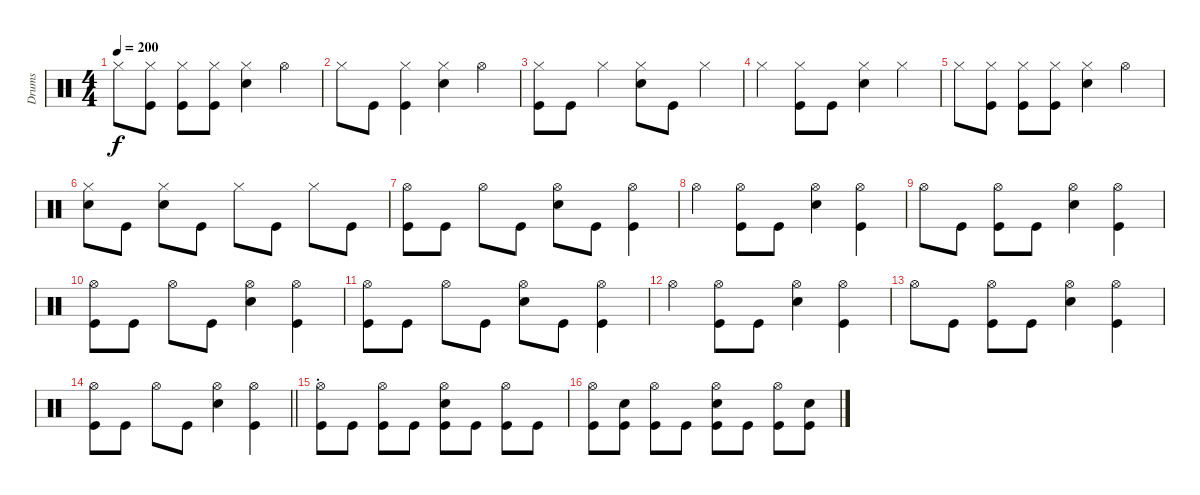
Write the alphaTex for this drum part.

\track ("Drums" "Drums") {instrument percussion}
\staff {score}
\articulation defaults
\ts (4 4)
\tempo 200
\clef neutral
\ks c "Hi-Hat (closed)".8{dy f}
("Hi-Hat (closed)" "Kick (hit)").8 ("Hi-Hat (closed)" "Kick (hit)").8 ("Hi-Hat (closed)" "Kick (hit)").8 ("Hi-Hat (closed)" "Snare (hit) 2").4 "Hi-Hat (open)".4 |
"Hi-Hat (closed)".8 "Kick (hit)".8 ("Hi-Hat (closed)" "Kick (hit)").4 ("Snare (hit) 2" "Hi-Hat (closed)").4 "Hi-Hat (open)".4 |
("Hi-Hat (closed)" "Kick (hit)").8 "Kick (hit)".8 "Hi-Hat (closed)".4 ("Hi-Hat (closed)" "Snare (hit) 2").8 "Kick (hit)".8 "Hi-Hat (closed)".4 |
"Hi-Hat (closed)".4 ("Kick (hit)" "Hi-Hat (closed)").8 "Kick (hit)".8 ("Snare (hit) 2" "Hi-Hat (closed)").4 "Hi-Hat (closed)".4 |
"Hi-Hat (closed)".8 ("Hi-Hat (closed)" "Kick (hit)").8 ("Hi-Hat (closed)" "Kick (hit)").8 ("Hi-Hat (closed)" "Kick (hit)").8 ("Hi-Hat (closed)" "Snare (hit) 2").4 "Hi-Hat (open)".4 |
("Hi-Hat (closed)" "Snare (hit) 2").8 "Kick (hit)".8 ("Snare (hit) 2" "Hi-Hat (closed)").8 "Kick (hit)".8 "Hi-Hat (closed)".8 "Kick (hit)".8 "Hi-Hat (closed)".8 "Kick (hit)".8 |
("Hi-Hat (open)" "Kick (hit)").8 "Kick (hit)".8 "Hi-Hat (open)".8 "Kick (hit)".8 ("Snare (hit) 2" "Hi-Hat (open)").8 "Kick (hit)".8 ("Hi-Hat (open)" "Kick (hit)").4 |
"Hi-Hat (open)".4 ("Hi-Hat (open)" "Kick (hit)").8 "Kick (hit)".8 ("Snare (hit) 2" "Hi-Hat (open)").4 ("Hi-Hat (open)" "Kick (hit)").4 |
"Hi-Hat (open)".8 "Kick (hit)".8 ("Hi-Hat (open)" "Kick (hit)").8 "Kick (hit)".8 ("Hi-Hat (open)" "Snare (hit) 2").4 ("Kick (hit)" "Hi-Hat (open)").4 |
("Hi-Hat (open)" "Kick (hit)").8 "Kick (hit)".8 "Hi-Hat (open)".8 "Kick (hit)".8 ("Snare (hit) 2" "Hi-Hat (open)").4 ("Hi-Hat (open)" "Kick (hit)").4 |
("Hi-Hat (open)" "Kick (hit)").8 "Kick (hit)".8 "Hi-Hat (open)".8 "Kick (hit)".8 ("Snare (hit) 2" "Hi-Hat (open)").8 "Kick (hit)".8 ("Hi-Hat (open)" "Kick (hit)").4 |
"Hi-Hat (open)".4 ("Hi-Hat (open)" "Kick (hit)").8 "Kick (hit)".8 ("Snare (hit) 2" "Hi-Hat (open)").4 ("Hi-Hat (open)" "Kick (hit)").4 |
"Hi-Hat (open)".8 "Kick (hit)".8 ("Hi-Hat (open)" "Kick (hit)").8 "Kick (hit)".8 ("Hi-Hat (open)" "Snare (hit) 2").4 ("Kick (hit)" "Hi-Hat (open)").4 |
\barLineRight lightlight
("Hi-Hat (open)" "Kick (hit)").8 "Kick (hit)".8 "Hi-Hat (open)".8 "Kick (hit)".8 ("Snare (hit) 2" "Hi-Hat (open)").4 ("Hi-Hat (open)" "Kick (hit)").4 |
\section ("" ".")
("Hi-Hat (open)" "Kick (hit)").8 "Kick (hit)".8 ("Hi-Hat (open)" "Kick (hit)").8 "Kick (hit)".8 ("Hi-Hat (open)" "Snare (hit) 2" "Kick (hit)").8 "Kick (hit)".8 ("Hi-Hat (open)" "Kick (hit)").8 "Kick (hit)".8 |
("Hi-Hat (open)" "Kick (hit)").8 ("Snare (hit) 2" "Kick (hit)").8 ("Hi-Hat (open)" "Kick (hit)").8 "Kick (hit)".8 ("Snare (hit) 2" "Hi-Hat (open)" "Kick (hit)").8 "Kick (hit)".8 ("Hi-Hat (open)" "Kick (hit)").8 ("Snare (hit) 2" "Kick (hit)").8
